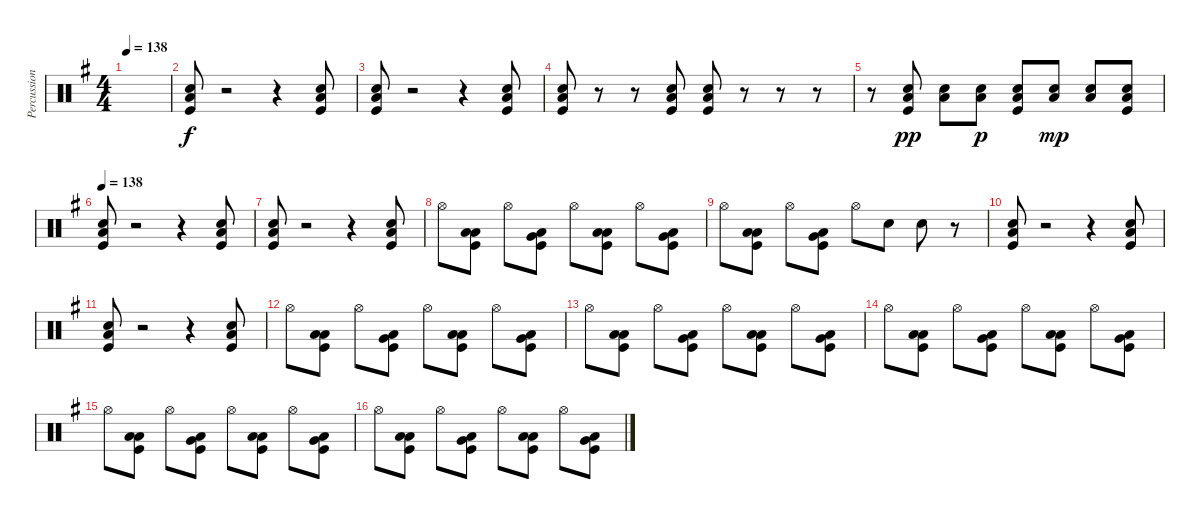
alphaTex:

\track ("Percussion" "Percussion") {instrument percussion}
\staff {score}
\articulation defaults
\ts (4 4)
\tempo 138
\clef neutral
\ks g
|
("Snare (hit) 2" "Low Floor Tom (hit)" "Kick (hit)").8 r.2 r.4 ("Snare (hit) 2" "Low Floor Tom (hit)" "Kick (hit)").8 |
("Snare (hit) 2" "Low Floor Tom (hit)" "Kick (hit)").8 r.2 r.4 ("Snare (hit) 2" "Low Floor Tom (hit)" "Kick (hit)").8 |
("Snare (hit) 2" "Low Floor Tom (hit)" "Kick (hit)").8 r.8 r.8 ("Snare (hit) 2" "Low Floor Tom (hit)" "Kick (hit)").8 ("Snare (hit) 2" "Low Floor Tom (hit)" "Kick (hit)").8 r.8 r.8 r.8 |
r.8 ("Snare (hit) 2" "Low Floor Tom (hit)" "Kick (hit)").8{dy pp} ("Snare (hit) 2" "Low Floor Tom (hit)").8 ("Snare (hit) 2" "Low Floor Tom (hit)").8{dy p} ("Snare (hit) 2" "Low Floor Tom (hit)" "Kick (hit)").8 ("Snare (hit) 2" "Low Floor Tom (hit)").8{dy mp} ("Snare (hit) 2" "Low Floor Tom (hit)").8 ("Snare (hit) 2" "Low Floor Tom (hit)" "Kick (hit)").8 |
\tempo 138
("Snare (hit) 2" "Low Floor Tom (hit)" "Kick (hit)").8 r.2 r.4 ("Snare (hit) 2" "Low Floor Tom (hit)" "Kick (hit)").8 |
("Snare (hit) 2" "Low Floor Tom (hit)" "Kick (hit)").8 r.2 r.4 ("Snare (hit) 2" "Low Floor Tom (hit)" "Kick (hit)").8 |
"Hi-Hat (open)".8 ("Low Tom (hit)" "Low Floor Tom (hit)" "Kick (hit)").8 "Hi-Hat (open)".8 ("Very Low Tom (hit)" "Low Floor Tom (hit)" "Kick (hit)").8 "Hi-Hat (open)".8 ("Low Floor Tom (hit)" "Low Floor Tom (hit)" "Kick (hit)").8 "Hi-Hat (open)".8 ("Very Low Tom (hit)" "Low Floor Tom (hit)" "Kick (hit)").8 |
"Hi-Hat (open)".8 ("Low Tom (hit)" "Low Floor Tom (hit)" "Kick (hit)").8 "Hi-Hat (open)".8 ("Very Low Tom (hit)" "Low Floor Tom (hit)" "Kick (hit)").8 "Hi-Hat (open)".8 "Snare (hit) 2".8 "Snare (hit) 2".8 r.8 |
("Snare (hit) 2" "Low Floor Tom (hit)" "Kick (hit)").8 r.2 r.4 ("Snare (hit) 2" "Low Floor Tom (hit)" "Kick (hit)").8 |
("Snare (hit) 2" "Low Floor Tom (hit)" "Kick (hit)").8 r.2 r.4 ("Snare (hit) 2" "Low Floor Tom (hit)" "Kick (hit)").8 |
"Hi-Hat (open)".8 ("Low Tom (hit)" "Low Floor Tom (hit)" "Kick (hit)").8 "Hi-Hat (open)".8 ("Very Low Tom (hit)" "Low Floor Tom (hit)" "Kick (hit)").8 "Hi-Hat (open)".8 ("Low Floor Tom (hit)" "Low Floor Tom (hit)" "Kick (hit)").8 "Hi-Hat (open)".8 ("Very Low Tom (hit)" "Low Floor Tom (hit)" "Kick (hit)").8 |
"Hi-Hat (open)".8 ("Low Tom (hit)" "Low Floor Tom (hit)" "Kick (hit)").8 "Hi-Hat (open)".8 ("Very Low Tom (hit)" "Low Floor Tom (hit)" "Kick (hit)").8 "Hi-Hat (open)".8 ("Low Floor Tom (hit)" "Low Floor Tom (hit)" "Kick (hit)").8 "Hi-Hat (open)".8 ("Very Low Tom (hit)" "Low Floor Tom (hit)" "Kick (hit)").8 |
"Hi-Hat (open)".8 ("Low Tom (hit)" "Low Floor Tom (hit)" "Kick (hit)").8 "Hi-Hat (open)".8 ("Very Low Tom (hit)" "Low Floor Tom (hit)" "Kick (hit)").8 "Hi-Hat (open)".8 ("Low Floor Tom (hit)" "Low Floor Tom (hit)" "Kick (hit)").8 "Hi-Hat (open)".8 ("Very Low Tom (hit)" "Low Floor Tom (hit)" "Kick (hit)").8 |
"Hi-Hat (open)".8 ("Low Tom (hit)" "Low Floor Tom (hit)" "Kick (hit)").8 "Hi-Hat (open)".8 ("Very Low Tom (hit)" "Low Floor Tom (hit)" "Kick (hit)").8 "Hi-Hat (open)".8 ("Low Floor Tom (hit)" "Low Floor Tom (hit)" "Kick (hit)").8 "Hi-Hat (open)".8 ("Very Low Tom (hit)" "Low Floor Tom (hit)" "Kick (hit)").8 |
"Hi-Hat (open)".8 ("Low Tom (hit)" "Low Floor Tom (hit)" "Kick (hit)").8 "Hi-Hat (open)".8 ("Very Low Tom (hit)" "Low Floor Tom (hit)" "Kick (hit)").8 "Hi-Hat (open)".8 ("Low Floor Tom (hit)" "Low Floor Tom (hit)" "Kick (hit)").8 "Hi-Hat (open)".8 ("Very Low Tom (hit)" "Low Floor Tom (hit)" "Kick (hit)").8
